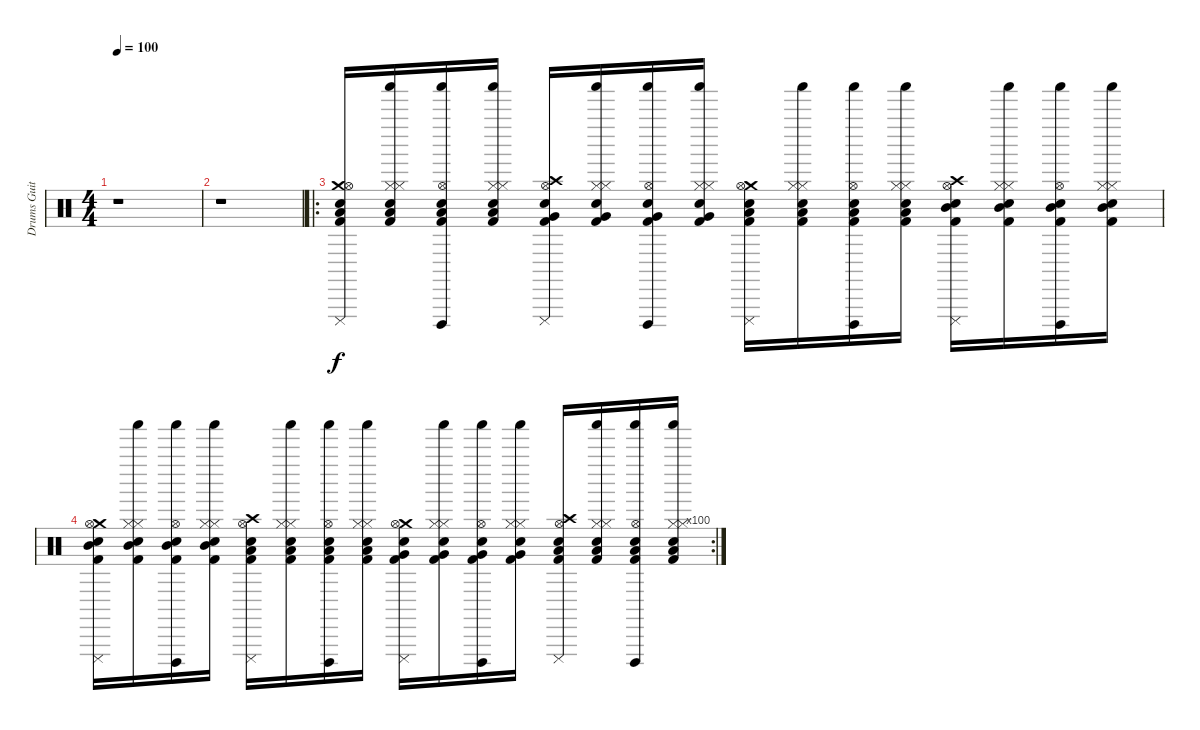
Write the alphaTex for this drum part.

\track ("Drums Guitar" "Drums Guit") {instrument percussion}
\staff {score}
\articulation defaults
\ts (4 4)
\tempo 100
\clef neutral
\ks c
r.1{dy f} |
r.1{volume 0} |
\ro
("Crash medium (hit)" "Snare (hit) 2" "Hi-Hat (open)" "Cuica (mute)" "Low Floor Tom (hit)" "Kick (hit) 2").16 ("Shaker (hit)" "Snare (hit) 2" "Hi-Hat (closed)" "Hi-Hat (closed)" "Low Floor Tom (hit)" "Kick (hit) 2").16 ("Shaker (hit)" "Snare (hit) 2" "Hi-Hat (open)" "Cuica (open)" "Low Floor Tom (hit)" "Kick (hit) 2").16 ("Shaker (hit)" "Snare (hit) 2" "Hi-Hat (closed)" "Hi-Hat (closed)" "Low Floor Tom (hit)" "Kick (hit) 2").16 ("Crash high (hit)" "Snare (hit) 2" "Hi-Hat (open)" "Cuica (mute)" "Very Low Tom (hit)" "Kick (hit) 2").16 ("Shaker (hit)" "Snare (hit) 2" "Hi-Hat (closed)" "Hi-Hat (closed)" "Very Low Tom (hit)" "Kick (hit) 2").16 ("Shaker (hit)" "Snare (hit) 2" "Hi-Hat (open)" "Cuica (open)" "Very Low Tom (hit)" "Kick (hit) 2").16 ("Shaker (hit)" "Snare (hit) 2" "Hi-Hat (closed)" "Hi-Hat (closed)" "Very Low Tom (hit)" "Kick (hit) 2").16 ("Crash medium (hit)" "Snare (hit) 2" "Hi-Hat (open)" "Cuica (mute)" "Low Tom (hit)" "Kick (hit) 2").16 ("Shaker (hit)" "Snare (hit) 2" "Hi-Hat (closed)" "Hi-Hat (closed)" "Low Tom (hit)" "Kick (hit) 2").16 ("Shaker (hit)" "Snare (hit) 2" "Hi-Hat (open)" "Cuica (open)" "Low Tom (hit)" "Kick (hit) 2").16 ("Shaker (hit)" "Snare (hit) 2" "Hi-Hat (closed)" "Hi-Hat (closed)" "Low Tom (hit)" "Kick (hit) 2").16 ("Crash high (hit)" "Snare (hit) 2" "Hi-Hat (open)" "Cuica (mute)" "Mid Tom (hit)" "Kick (hit) 2").16 ("Shaker (hit)" "Snare (hit) 2" "Hi-Hat (closed)" "Hi-Hat (closed)" "Mid Tom (hit)" "Kick (hit) 2").16 ("Shaker (hit)" "Snare (hit) 2" "Hi-Hat (open)" "Cuica (open)" "Mid Tom (hit)" "Kick (hit) 2").16 ("Shaker (hit)" "Snare (hit) 2" "Hi-Hat (closed)" "Hi-Hat (closed)" "Mid Tom (hit)" "Kick (hit) 2").16 |
\rc 100
("Crash medium (hit)" "Snare (hit) 2" "Hi-Hat (open)" "Cuica (mute)" "Mid Tom (hit)" "Kick (hit) 2").16 ("Shaker (hit)" "Snare (hit) 2" "Hi-Hat (closed)" "Hi-Hat (closed)" "Mid Tom (hit)" "Kick (hit) 2").16 ("Shaker (hit)" "Snare (hit) 2" "Hi-Hat (open)" "Cuica (open)" "Mid Tom (hit)" "Kick (hit) 2").16 ("Shaker (hit)" "Snare (hit) 2" "Hi-Hat (closed)" "Hi-Hat (closed)" "Mid Tom (hit)" "Kick (hit) 2").16 ("Crash high (hit)" "Snare (hit) 2" "Hi-Hat (open)" "Cuica (mute)" "Low Tom (hit)" "Kick (hit) 2").16 ("Shaker (hit)" "Snare (hit) 2" "Hi-Hat (closed)" "Hi-Hat (closed)" "Low Tom (hit)" "Kick (hit) 2").16 ("Shaker (hit)" "Snare (hit) 2" "Hi-Hat (open)" "Cuica (open)" "Low Tom (hit)" "Kick (hit) 2").16 ("Shaker (hit)" "Snare (hit) 2" "Hi-Hat (closed)" "Hi-Hat (closed)" "Low Tom (hit)" "Kick (hit) 2").16 ("Crash medium (hit)" "Snare (hit) 2" "Hi-Hat (open)" "Cuica (mute)" "Very Low Tom (hit)" "Kick (hit) 2").16 ("Shaker (hit)" "Snare (hit) 2" "Hi-Hat (closed)" "Hi-Hat (closed)" "Very Low Tom (hit)" "Kick (hit) 2").16 ("Shaker (hit)" "Snare (hit) 2" "Hi-Hat (open)" "Cuica (open)" "Very Low Tom (hit)" "Kick (hit) 2").16 ("Shaker (hit)" "Snare (hit) 2" "Hi-Hat (closed)" "Hi-Hat (closed)" "Very Low Tom (hit)" "Kick (hit) 2").16 ("Crash high (hit)" "Snare (hit) 2" "Hi-Hat (open)" "Cuica (mute)" "Low Floor Tom (hit)" "Kick (hit) 2").16 ("Shaker (hit)" "Snare (hit) 2" "Hi-Hat (closed)" "Hi-Hat (closed)" "Low Floor Tom (hit)" "Kick (hit) 2").16 ("Shaker (hit)" "Snare (hit) 2" "Hi-Hat (open)" "Cuica (open)" "Low Floor Tom (hit)" "Kick (hit) 2").16 ("Shaker (hit)" "Snare (hit) 2" "Hi-Hat (closed)" "Hi-Hat (closed)" "Low Floor Tom (hit)" "Kick (hit) 2").16
